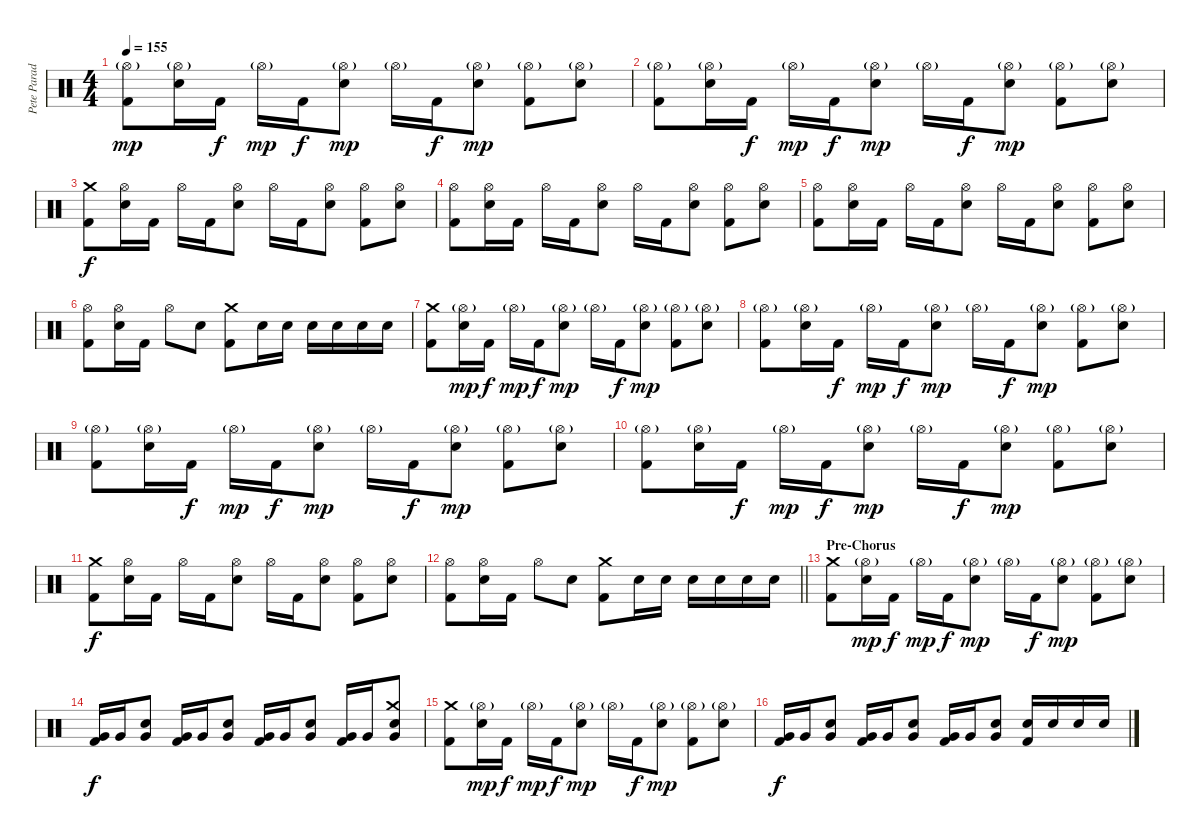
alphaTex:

\track ("Pete Parada - Drums" "Pete Parad") {instrument percussion}
\staff {score}
\articulation defaults
\ts (4 4)
\tempo 155
\clef neutral
\ks c
("Hi-Hat (open)"{g} "Kick (hit) 2").8{dy mp} ("Hi-Hat (open)"{g} "Electric Snare (hit)").16 "Kick (hit) 2".16{dy f} "Hi-Hat (open)"{g}.16{dy mp} "Kick (hit) 2".16{dy f} ("Hi-Hat (open)"{g} "Electric Snare (hit)").8{dy mp} "Hi-Hat (open)"{g}.16 "Kick (hit) 2".16{dy f} ("Hi-Hat (open)"{g} "Electric Snare (hit)").8{dy mp} ("Hi-Hat (open)"{g} "Kick (hit) 2").8 ("Hi-Hat (open)"{g} "Electric Snare (hit)").8 |
("Hi-Hat (open)"{g} "Kick (hit) 2").8 ("Hi-Hat (open)"{g} "Electric Snare (hit)").16 "Kick (hit) 2".16{dy f} "Hi-Hat (open)"{g}.16{dy mp} "Kick (hit) 2".16{dy f} ("Hi-Hat (open)"{g} "Electric Snare (hit)").8{dy mp} "Hi-Hat (open)"{g}.16 "Kick (hit) 2".16{dy f} ("Hi-Hat (open)"{g} "Electric Snare (hit)").8{dy mp} ("Hi-Hat (open)"{g} "Kick (hit) 2").8 ("Hi-Hat (open)"{g} "Electric Snare (hit)").8 |
("Crash medium (hit)" "Kick (hit) 2").8{dy f} ("Hi-Hat (open)" "Electric Snare (hit)").16 "Kick (hit) 2".16 "Hi-Hat (open)".16 "Kick (hit) 2".16 ("Hi-Hat (open)" "Electric Snare (hit)").8 "Hi-Hat (open)".16 "Kick (hit) 2".16 ("Hi-Hat (open)" "Electric Snare (hit)").8 ("Hi-Hat (open)" "Kick (hit) 2").8 ("Hi-Hat (open)" "Electric Snare (hit)").8 |
("Hi-Hat (open)" "Kick (hit) 2").8 ("Hi-Hat (open)" "Electric Snare (hit)").16 "Kick (hit) 2".16 "Hi-Hat (open)".16 "Kick (hit) 2".16 ("Hi-Hat (open)" "Electric Snare (hit)").8 "Hi-Hat (open)".16 "Kick (hit) 2".16 ("Hi-Hat (open)" "Electric Snare (hit)").8 ("Hi-Hat (open)" "Kick (hit) 2").8 ("Hi-Hat (open)" "Electric Snare (hit)").8 |
("Hi-Hat (open)" "Kick (hit) 2").8 ("Hi-Hat (open)" "Electric Snare (hit)").16 "Kick (hit) 2".16 "Hi-Hat (open)".16 "Kick (hit) 2".16 ("Hi-Hat (open)" "Electric Snare (hit)").8 "Hi-Hat (open)".16 "Kick (hit) 2".16 ("Hi-Hat (open)" "Electric Snare (hit)").8 ("Hi-Hat (open)" "Kick (hit) 2").8 ("Hi-Hat (open)" "Electric Snare (hit)").8 |
("Hi-Hat (open)" "Kick (hit) 2").8 ("Hi-Hat (open)" "Electric Snare (hit)").16 "Kick (hit) 2".16 "Hi-Hat (open)".8 "Electric Snare (hit)".8 ("Crash medium (hit)" "Kick (hit) 2").8 "Electric Snare (hit)".16 "Electric Snare (hit)".16 "Electric Snare (hit)".16 "Electric Snare (hit)".16 "Electric Snare (hit)".16 "Electric Snare (hit)".16 |
("Crash medium (hit)" "Kick (hit) 2").8 ("Hi-Hat (open)"{g} "Electric Snare (hit)").16{dy mp} "Kick (hit) 2".16{dy f} "Hi-Hat (open)"{g}.16{dy mp} "Kick (hit) 2".16{dy f} ("Hi-Hat (open)"{g} "Electric Snare (hit)").8{dy mp} "Hi-Hat (open)"{g}.16 "Kick (hit) 2".16{dy f} ("Hi-Hat (open)"{g} "Electric Snare (hit)").8{dy mp} ("Hi-Hat (open)"{g} "Kick (hit) 2").8 ("Hi-Hat (open)"{g} "Electric Snare (hit)").8 |
("Hi-Hat (open)"{g} "Kick (hit) 2").8 ("Hi-Hat (open)"{g} "Electric Snare (hit)").16 "Kick (hit) 2".16{dy f} "Hi-Hat (open)"{g}.16{dy mp} "Kick (hit) 2".16{dy f} ("Hi-Hat (open)"{g} "Electric Snare (hit)").8{dy mp} "Hi-Hat (open)"{g}.16 "Kick (hit) 2".16{dy f} ("Hi-Hat (open)"{g} "Electric Snare (hit)").8{dy mp} ("Hi-Hat (open)"{g} "Kick (hit) 2").8 ("Hi-Hat (open)"{g} "Electric Snare (hit)").8 |
("Hi-Hat (open)"{g} "Kick (hit) 2").8 ("Hi-Hat (open)"{g} "Electric Snare (hit)").16 "Kick (hit) 2".16{dy f} "Hi-Hat (open)"{g}.16{dy mp} "Kick (hit) 2".16{dy f} ("Hi-Hat (open)"{g} "Electric Snare (hit)").8{dy mp} "Hi-Hat (open)"{g}.16 "Kick (hit) 2".16{dy f} ("Hi-Hat (open)"{g} "Electric Snare (hit)").8{dy mp} ("Hi-Hat (open)"{g} "Kick (hit) 2").8 ("Hi-Hat (open)"{g} "Electric Snare (hit)").8 |
("Hi-Hat (open)"{g} "Kick (hit) 2").8 ("Hi-Hat (open)"{g} "Electric Snare (hit)").16 "Kick (hit) 2".16{dy f} "Hi-Hat (open)"{g}.16{dy mp} "Kick (hit) 2".16{dy f} ("Hi-Hat (open)"{g} "Electric Snare (hit)").8{dy mp} "Hi-Hat (open)"{g}.16 "Kick (hit) 2".16{dy f} ("Hi-Hat (open)"{g} "Electric Snare (hit)").8{dy mp} ("Hi-Hat (open)"{g} "Kick (hit) 2").8 ("Hi-Hat (open)"{g} "Electric Snare (hit)").8 |
("Crash medium (hit)" "Kick (hit) 2").8{dy f} ("Hi-Hat (open)" "Electric Snare (hit)").16 "Kick (hit) 2".16 "Hi-Hat (open)".16 "Kick (hit) 2".16 ("Hi-Hat (open)" "Electric Snare (hit)").8 "Hi-Hat (open)".16 "Kick (hit) 2".16 ("Hi-Hat (open)" "Electric Snare (hit)").8 ("Hi-Hat (open)" "Kick (hit) 2").8 ("Hi-Hat (open)" "Electric Snare (hit)").8 |
\barLineRight lightlight
("Hi-Hat (open)" "Kick (hit) 2").8 ("Hi-Hat (open)" "Electric Snare (hit)").16 "Kick (hit) 2".16 "Hi-Hat (open)".8 "Electric Snare (hit)".8 ("Crash medium (hit)" "Kick (hit) 2").8 "Electric Snare (hit)".16 "Electric Snare (hit)".16 "Electric Snare (hit)".16 "Electric Snare (hit)".16 "Electric Snare (hit)".16 "Electric Snare (hit)".16 |
\section ("" "Pre-Chorus")
("Crash medium (hit)" "Kick (hit) 2").8 ("Hi-Hat (open)"{g} "Electric Snare (hit)").16{dy mp} "Kick (hit) 2".16{dy f} "Hi-Hat (open)"{g}.16{dy mp} "Kick (hit) 2".16{dy f} ("Hi-Hat (open)"{g} "Electric Snare (hit)").8{dy mp} "Hi-Hat (open)"{g}.16 "Kick (hit) 2".16{dy f} ("Hi-Hat (open)"{g} "Electric Snare (hit)").8{dy mp} ("Hi-Hat (open)"{g} "Kick (hit) 2").8 ("Hi-Hat (open)"{g} "Electric Snare (hit)").8 |
("Kick (hit) 2" "Very Low Tom (hit)").16{dy f} "Very Low Tom (hit)".16 ("Electric Snare (hit)" "Very Low Tom (hit)").8 ("Kick (hit) 2" "Very Low Tom (hit)").16 "Very Low Tom (hit)".16 ("Electric Snare (hit)" "Very Low Tom (hit)").8 ("Kick (hit) 2" "Very Low Tom (hit)").16 "Very Low Tom (hit)".16 ("Electric Snare (hit)" "Very Low Tom (hit)").8 ("Kick (hit) 2" "Very Low Tom (hit)").16 "Very Low Tom (hit)".16 ("Crash medium (hit)" "Electric Snare (hit)" "Very Low Tom (hit)").8 |
("Crash medium (hit)" "Kick (hit) 2").8 ("Hi-Hat (open)"{g} "Electric Snare (hit)").16{dy mp} "Kick (hit) 2".16{dy f} "Hi-Hat (open)"{g}.16{dy mp} "Kick (hit) 2".16{dy f} ("Hi-Hat (open)"{g} "Electric Snare (hit)").8{dy mp} "Hi-Hat (open)"{g}.16 "Kick (hit) 2".16{dy f} ("Hi-Hat (open)"{g} "Electric Snare (hit)").8{dy mp} ("Hi-Hat (open)"{g} "Kick (hit) 2").8 ("Hi-Hat (open)"{g} "Electric Snare (hit)").8 |
("Kick (hit) 2" "Very Low Tom (hit)").16{dy f} "Very Low Tom (hit)".16 ("Electric Snare (hit)" "Very Low Tom (hit)").8 ("Kick (hit) 2" "Very Low Tom (hit)").16 "Very Low Tom (hit)".16 ("Electric Snare (hit)" "Very Low Tom (hit)").8 ("Kick (hit) 2" "Very Low Tom (hit)").16 "Very Low Tom (hit)".16 ("Electric Snare (hit)" "Very Low Tom (hit)").8 ("Kick (hit) 2" "Electric Snare (hit)").16 "Electric Snare (hit)".16 "Electric Snare (hit)".16 "Electric Snare (hit)".16
